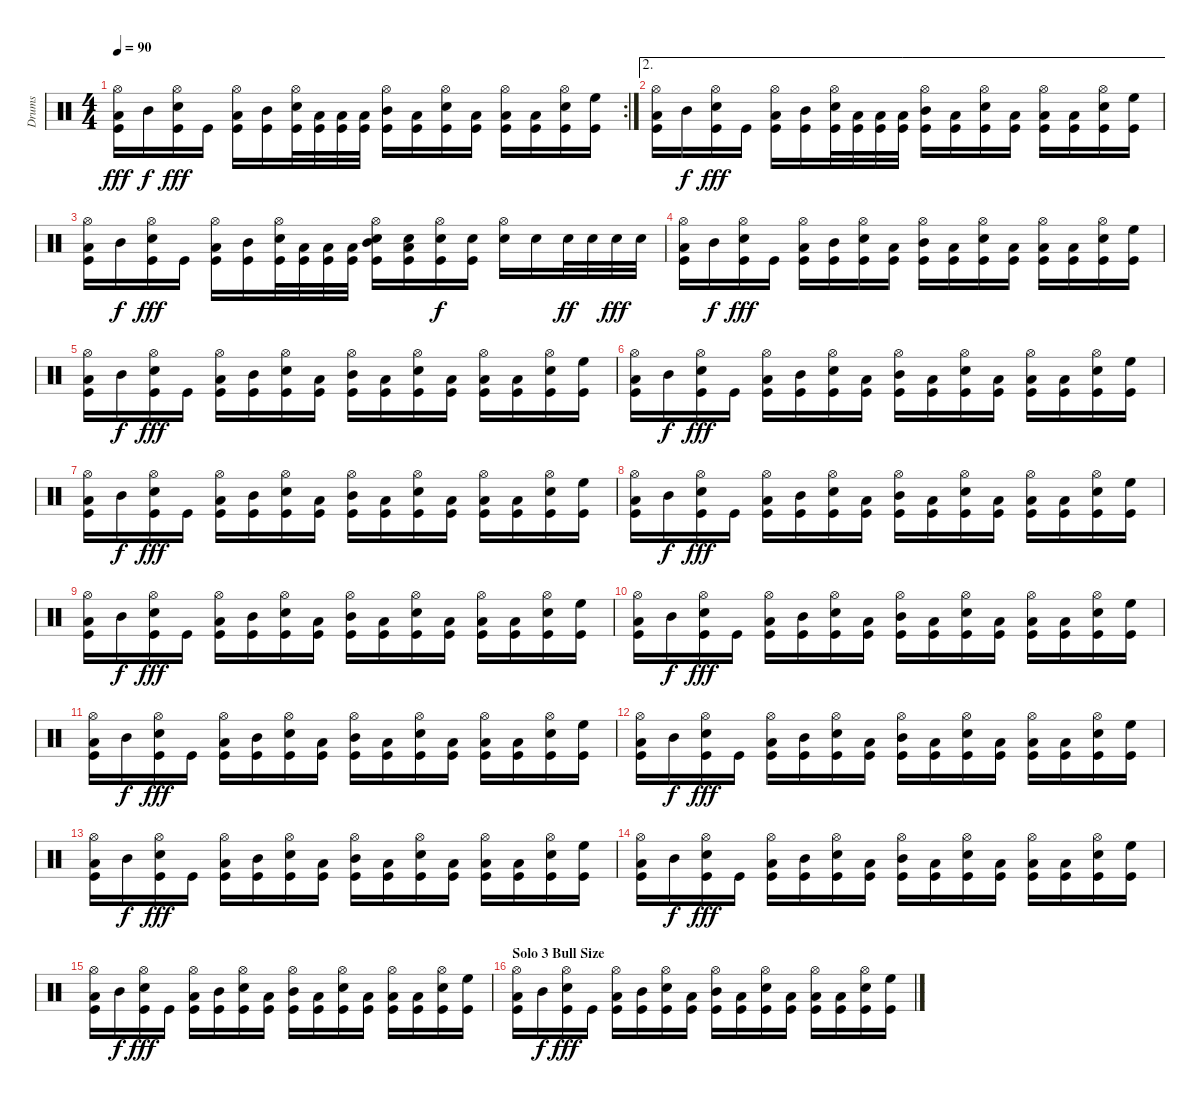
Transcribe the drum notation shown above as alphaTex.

\track ("Drums" "Drums") {instrument percussion}
\staff {score}
\articulation defaults
\rc 2
\ts (4 4)
\tempo 90
\clef neutral
\ks c
("Hi-Hat (open)" "Low Tom (hit)" "Kick (hit)").16{dy fff} "Mid Tom (hit)".16{dy f} ("Hi-Hat (open)" "Snare (hit) 2" "Kick (hit)").16{dy fff} "Kick (hit)".16 ("Hi-Hat (open)" "Low Tom (hit)" "Kick (hit)").16 ("Mid Tom (hit)" "Kick (hit)").16 ("Hi-Hat (open)" "Snare (hit) 2" "Kick (hit)").32 ("Low Tom (hit)" "Kick (hit)").32 ("Low Tom (hit)" "Kick (hit)").32 ("Low Tom (hit)" "Kick (hit)").32 ("Hi-Hat (open)" "Mid Tom (hit)" "Kick (hit)").16 ("Low Tom (hit)" "Kick (hit)").16 ("Hi-Hat (open)" "Snare (hit) 2" "Kick (hit)").16 ("Low Tom (hit)" "Kick (hit)").16 ("Hi-Hat (open)" "Low Tom (hit)" "Kick (hit)").16 ("Low Tom (hit)" "Kick (hit)").16 ("Hi-Hat (open)" "Snare (hit) 2" "Kick (hit)").16 ("High Floor Tom (hit)" "Kick (hit)").16 |
\ae 2
("Hi-Hat (open)" "Low Tom (hit)" "Kick (hit)").16 "Mid Tom (hit)".16{dy f} ("Hi-Hat (open)" "Snare (hit) 2" "Kick (hit)").16{dy fff} "Kick (hit)".16 ("Hi-Hat (open)" "Low Tom (hit)" "Kick (hit)").16 ("Mid Tom (hit)" "Kick (hit)").16 ("Hi-Hat (open)" "Snare (hit) 2" "Kick (hit)").32 ("Low Tom (hit)" "Kick (hit)").32 ("Low Tom (hit)" "Kick (hit)").32 ("Low Tom (hit)" "Kick (hit)").32 ("Hi-Hat (open)" "Mid Tom (hit)" "Kick (hit)").16 ("Low Tom (hit)" "Kick (hit)").16 ("Hi-Hat (open)" "Snare (hit) 2" "Kick (hit)").16 ("Low Tom (hit)" "Kick (hit)").16 ("Hi-Hat (open)" "Low Tom (hit)" "Kick (hit)").16 ("Low Tom (hit)" "Kick (hit)").16 ("Hi-Hat (open)" "Snare (hit) 2" "Kick (hit)").16 ("High Floor Tom (hit)" "Kick (hit)").16 |
("Hi-Hat (open)" "Low Tom (hit)" "Kick (hit)").16 "Mid Tom (hit)".16{dy f} ("Hi-Hat (open)" "Snare (hit) 2" "Kick (hit)").16{dy fff} "Kick (hit)".16 ("Hi-Hat (open)" "Low Tom (hit)" "Kick (hit)").16 ("Mid Tom (hit)" "Kick (hit)").16 ("Hi-Hat (open)" "Snare (hit) 2" "Kick (hit)").32 ("Low Tom (hit)" "Kick (hit)").32 ("Low Tom (hit)" "Kick (hit)").32 ("Low Tom (hit)" "Kick (hit)").32 ("Hi-Hat (open)" "Mid Tom (hit)" "Snare (hit) 2" "Kick (hit)").16 ("Low Tom (hit)" "Snare (hit) 2" "Kick (hit)").16 ("Hi-Hat (open)" "Snare (hit) 2" "Kick (hit)").16{dy f} ("Snare (hit) 2" "Kick (hit)").16 ("Hi-Hat (open)" "Snare (hit) 2").16 "Snare (hit) 2".16 "Snare (hit) 2".32{dy ff} "Snare (hit) 2".32 "Snare (hit) 2".32{dy fff} "Snare (hit) 2".32 |
("Hi-Hat (open)" "Low Tom (hit)" "Kick (hit)").16 "Mid Tom (hit)".16{dy f} ("Hi-Hat (open)" "Snare (hit) 2" "Kick (hit)").16{dy fff} "Kick (hit)".16 ("Hi-Hat (open)" "Low Tom (hit)" "Kick (hit)").16 ("Mid Tom (hit)" "Kick (hit)").16 ("Hi-Hat (open)" "Snare (hit) 2" "Kick (hit)").16 ("Low Tom (hit)" "Kick (hit)").16 ("Hi-Hat (open)" "Mid Tom (hit)" "Kick (hit)").16 ("Low Tom (hit)" "Kick (hit)").16 ("Hi-Hat (open)" "Snare (hit) 2" "Kick (hit)").16 ("Low Tom (hit)" "Kick (hit)").16 ("Hi-Hat (open)" "Low Tom (hit)" "Kick (hit)").16 ("Low Tom (hit)" "Kick (hit)").16 ("Hi-Hat (open)" "Snare (hit) 2" "Kick (hit)").16 ("High Floor Tom (hit)" "Kick (hit)").16 |
("Hi-Hat (open)" "Low Tom (hit)" "Kick (hit)").16 "Mid Tom (hit)".16{dy f} ("Hi-Hat (open)" "Snare (hit) 2" "Kick (hit)").16{dy fff} "Kick (hit)".16 ("Hi-Hat (open)" "Low Tom (hit)" "Kick (hit)").16 ("Mid Tom (hit)" "Kick (hit)").16 ("Hi-Hat (open)" "Snare (hit) 2" "Kick (hit)").16 ("Low Tom (hit)" "Kick (hit)").16 ("Hi-Hat (open)" "Mid Tom (hit)" "Kick (hit)").16 ("Low Tom (hit)" "Kick (hit)").16 ("Hi-Hat (open)" "Snare (hit) 2" "Kick (hit)").16 ("Low Tom (hit)" "Kick (hit)").16 ("Hi-Hat (open)" "Low Tom (hit)" "Kick (hit)").16 ("Low Tom (hit)" "Kick (hit)").16 ("Hi-Hat (open)" "Snare (hit) 2" "Kick (hit)").16 ("High Floor Tom (hit)" "Kick (hit)").16 |
("Hi-Hat (open)" "Low Tom (hit)" "Kick (hit)").16 "Mid Tom (hit)".16{dy f} ("Hi-Hat (open)" "Snare (hit) 2" "Kick (hit)").16{dy fff} "Kick (hit)".16 ("Hi-Hat (open)" "Low Tom (hit)" "Kick (hit)").16 ("Mid Tom (hit)" "Kick (hit)").16 ("Hi-Hat (open)" "Snare (hit) 2" "Kick (hit)").16 ("Low Tom (hit)" "Kick (hit)").16 ("Hi-Hat (open)" "Mid Tom (hit)" "Kick (hit)").16 ("Low Tom (hit)" "Kick (hit)").16 ("Hi-Hat (open)" "Snare (hit) 2" "Kick (hit)").16 ("Low Tom (hit)" "Kick (hit)").16 ("Hi-Hat (open)" "Low Tom (hit)" "Kick (hit)").16 ("Low Tom (hit)" "Kick (hit)").16 ("Hi-Hat (open)" "Snare (hit) 2" "Kick (hit)").16 ("High Floor Tom (hit)" "Kick (hit)").16 |
("Hi-Hat (open)" "Low Tom (hit)" "Kick (hit)").16 "Mid Tom (hit)".16{dy f} ("Hi-Hat (open)" "Snare (hit) 2" "Kick (hit)").16{dy fff} "Kick (hit)".16 ("Hi-Hat (open)" "Low Tom (hit)" "Kick (hit)").16 ("Mid Tom (hit)" "Kick (hit)").16 ("Hi-Hat (open)" "Snare (hit) 2" "Kick (hit)").16 ("Low Tom (hit)" "Kick (hit)").16 ("Hi-Hat (open)" "Mid Tom (hit)" "Kick (hit)").16 ("Low Tom (hit)" "Kick (hit)").16 ("Hi-Hat (open)" "Snare (hit) 2" "Kick (hit)").16 ("Low Tom (hit)" "Kick (hit)").16 ("Hi-Hat (open)" "Low Tom (hit)" "Kick (hit)").16 ("Low Tom (hit)" "Kick (hit)").16 ("Hi-Hat (open)" "Snare (hit) 2" "Kick (hit)").16 ("High Floor Tom (hit)" "Kick (hit)").16 |
("Hi-Hat (open)" "Low Tom (hit)" "Kick (hit)").16 "Mid Tom (hit)".16{dy f} ("Hi-Hat (open)" "Snare (hit) 2" "Kick (hit)").16{dy fff} "Kick (hit)".16 ("Hi-Hat (open)" "Low Tom (hit)" "Kick (hit)").16 ("Mid Tom (hit)" "Kick (hit)").16 ("Hi-Hat (open)" "Snare (hit) 2" "Kick (hit)").16 ("Low Tom (hit)" "Kick (hit)").16 ("Hi-Hat (open)" "Mid Tom (hit)" "Kick (hit)").16 ("Low Tom (hit)" "Kick (hit)").16 ("Hi-Hat (open)" "Snare (hit) 2" "Kick (hit)").16 ("Low Tom (hit)" "Kick (hit)").16 ("Hi-Hat (open)" "Low Tom (hit)" "Kick (hit)").16 ("Low Tom (hit)" "Kick (hit)").16 ("Hi-Hat (open)" "Snare (hit) 2" "Kick (hit)").16 ("High Floor Tom (hit)" "Kick (hit)").16 |
("Hi-Hat (open)" "Low Tom (hit)" "Kick (hit)").16 "Mid Tom (hit)".16{dy f} ("Hi-Hat (open)" "Snare (hit) 2" "Kick (hit)").16{dy fff} "Kick (hit)".16 ("Hi-Hat (open)" "Low Tom (hit)" "Kick (hit)").16 ("Mid Tom (hit)" "Kick (hit)").16 ("Hi-Hat (open)" "Snare (hit) 2" "Kick (hit)").16 ("Low Tom (hit)" "Kick (hit)").16 ("Hi-Hat (open)" "Mid Tom (hit)" "Kick (hit)").16 ("Low Tom (hit)" "Kick (hit)").16 ("Hi-Hat (open)" "Snare (hit) 2" "Kick (hit)").16 ("Low Tom (hit)" "Kick (hit)").16 ("Hi-Hat (open)" "Low Tom (hit)" "Kick (hit)").16 ("Low Tom (hit)" "Kick (hit)").16 ("Hi-Hat (open)" "Snare (hit) 2" "Kick (hit)").16 ("High Floor Tom (hit)" "Kick (hit)").16 |
("Hi-Hat (open)" "Low Tom (hit)" "Kick (hit)").16 "Mid Tom (hit)".16{dy f} ("Hi-Hat (open)" "Snare (hit) 2" "Kick (hit)").16{dy fff} "Kick (hit)".16 ("Hi-Hat (open)" "Low Tom (hit)" "Kick (hit)").16 ("Mid Tom (hit)" "Kick (hit)").16 ("Hi-Hat (open)" "Snare (hit) 2" "Kick (hit)").16 ("Low Tom (hit)" "Kick (hit)").16 ("Hi-Hat (open)" "Mid Tom (hit)" "Kick (hit)").16 ("Low Tom (hit)" "Kick (hit)").16 ("Hi-Hat (open)" "Snare (hit) 2" "Kick (hit)").16 ("Low Tom (hit)" "Kick (hit)").16 ("Hi-Hat (open)" "Low Tom (hit)" "Kick (hit)").16 ("Low Tom (hit)" "Kick (hit)").16 ("Hi-Hat (open)" "Snare (hit) 2" "Kick (hit)").16 ("High Floor Tom (hit)" "Kick (hit)").16 |
("Hi-Hat (open)" "Low Tom (hit)" "Kick (hit)").16 "Mid Tom (hit)".16{dy f} ("Hi-Hat (open)" "Snare (hit) 2" "Kick (hit)").16{dy fff} "Kick (hit)".16 ("Hi-Hat (open)" "Low Tom (hit)" "Kick (hit)").16 ("Mid Tom (hit)" "Kick (hit)").16 ("Hi-Hat (open)" "Snare (hit) 2" "Kick (hit)").16 ("Low Tom (hit)" "Kick (hit)").16 ("Hi-Hat (open)" "Mid Tom (hit)" "Kick (hit)").16 ("Low Tom (hit)" "Kick (hit)").16 ("Hi-Hat (open)" "Snare (hit) 2" "Kick (hit)").16 ("Low Tom (hit)" "Kick (hit)").16 ("Hi-Hat (open)" "Low Tom (hit)" "Kick (hit)").16 ("Low Tom (hit)" "Kick (hit)").16 ("Hi-Hat (open)" "Snare (hit) 2" "Kick (hit)").16 ("High Floor Tom (hit)" "Kick (hit)").16 |
("Hi-Hat (open)" "Low Tom (hit)" "Kick (hit)").16 "Mid Tom (hit)".16{dy f} ("Hi-Hat (open)" "Snare (hit) 2" "Kick (hit)").16{dy fff} "Kick (hit)".16 ("Hi-Hat (open)" "Low Tom (hit)" "Kick (hit)").16 ("Mid Tom (hit)" "Kick (hit)").16 ("Hi-Hat (open)" "Snare (hit) 2" "Kick (hit)").16 ("Low Tom (hit)" "Kick (hit)").16 ("Hi-Hat (open)" "Mid Tom (hit)" "Kick (hit)").16 ("Low Tom (hit)" "Kick (hit)").16 ("Hi-Hat (open)" "Snare (hit) 2" "Kick (hit)").16 ("Low Tom (hit)" "Kick (hit)").16 ("Hi-Hat (open)" "Low Tom (hit)" "Kick (hit)").16 ("Low Tom (hit)" "Kick (hit)").16 ("Hi-Hat (open)" "Snare (hit) 2" "Kick (hit)").16 ("High Floor Tom (hit)" "Kick (hit)").16 |
("Hi-Hat (open)" "Low Tom (hit)" "Kick (hit)").16 "Mid Tom (hit)".16{dy f} ("Hi-Hat (open)" "Snare (hit) 2" "Kick (hit)").16{dy fff} "Kick (hit)".16 ("Hi-Hat (open)" "Low Tom (hit)" "Kick (hit)").16 ("Mid Tom (hit)" "Kick (hit)").16 ("Hi-Hat (open)" "Snare (hit) 2" "Kick (hit)").16 ("Low Tom (hit)" "Kick (hit)").16 ("Hi-Hat (open)" "Mid Tom (hit)" "Kick (hit)").16 ("Low Tom (hit)" "Kick (hit)").16 ("Hi-Hat (open)" "Snare (hit) 2" "Kick (hit)").16 ("Low Tom (hit)" "Kick (hit)").16 ("Hi-Hat (open)" "Low Tom (hit)" "Kick (hit)").16 ("Low Tom (hit)" "Kick (hit)").16 ("Hi-Hat (open)" "Snare (hit) 2" "Kick (hit)").16 ("High Floor Tom (hit)" "Kick (hit)").16 |
("Hi-Hat (open)" "Low Tom (hit)" "Kick (hit)").16 "Mid Tom (hit)".16{dy f} ("Hi-Hat (open)" "Snare (hit) 2" "Kick (hit)").16{dy fff} "Kick (hit)".16 ("Hi-Hat (open)" "Low Tom (hit)" "Kick (hit)").16 ("Mid Tom (hit)" "Kick (hit)").16 ("Hi-Hat (open)" "Snare (hit) 2" "Kick (hit)").16 ("Low Tom (hit)" "Kick (hit)").16 ("Hi-Hat (open)" "Mid Tom (hit)" "Kick (hit)").16 ("Low Tom (hit)" "Kick (hit)").16 ("Hi-Hat (open)" "Snare (hit) 2" "Kick (hit)").16 ("Low Tom (hit)" "Kick (hit)").16 ("Hi-Hat (open)" "Low Tom (hit)" "Kick (hit)").16 ("Low Tom (hit)" "Kick (hit)").16 ("Hi-Hat (open)" "Snare (hit) 2" "Kick (hit)").16 ("High Floor Tom (hit)" "Kick (hit)").16 |
("Hi-Hat (open)" "Low Tom (hit)" "Kick (hit)").16 "Mid Tom (hit)".16{dy f} ("Hi-Hat (open)" "Snare (hit) 2" "Kick (hit)").16{dy fff} "Kick (hit)".16 ("Hi-Hat (open)" "Low Tom (hit)" "Kick (hit)").16 ("Mid Tom (hit)" "Kick (hit)").16 ("Hi-Hat (open)" "Snare (hit) 2" "Kick (hit)").16 ("Low Tom (hit)" "Kick (hit)").16 ("Hi-Hat (open)" "Mid Tom (hit)" "Kick (hit)").16 ("Low Tom (hit)" "Kick (hit)").16 ("Hi-Hat (open)" "Snare (hit) 2" "Kick (hit)").16 ("Low Tom (hit)" "Kick (hit)").16 ("Hi-Hat (open)" "Low Tom (hit)" "Kick (hit)").16 ("Low Tom (hit)" "Kick (hit)").16 ("Hi-Hat (open)" "Snare (hit) 2" "Kick (hit)").16 ("High Floor Tom (hit)" "Kick (hit)").16 |
\section ("" "Solo 3 Bull Size")
("Hi-Hat (open)" "Low Tom (hit)" "Kick (hit)").16 "Mid Tom (hit)".16{dy f} ("Hi-Hat (open)" "Snare (hit) 2" "Kick (hit)").16{dy fff} "Kick (hit)".16 ("Hi-Hat (open)" "Low Tom (hit)" "Kick (hit)").16 ("Mid Tom (hit)" "Kick (hit)").16 ("Hi-Hat (open)" "Snare (hit) 2" "Kick (hit)").16 ("Low Tom (hit)" "Kick (hit)").16 ("Hi-Hat (open)" "Mid Tom (hit)" "Kick (hit)").16 ("Low Tom (hit)" "Kick (hit)").16 ("Hi-Hat (open)" "Snare (hit) 2" "Kick (hit)").16 ("Low Tom (hit)" "Kick (hit)").16 ("Hi-Hat (open)" "Low Tom (hit)" "Kick (hit)").16 ("Low Tom (hit)" "Kick (hit)").16 ("Hi-Hat (open)" "Snare (hit) 2" "Kick (hit)").16 ("High Floor Tom (hit)" "Kick (hit)").16
